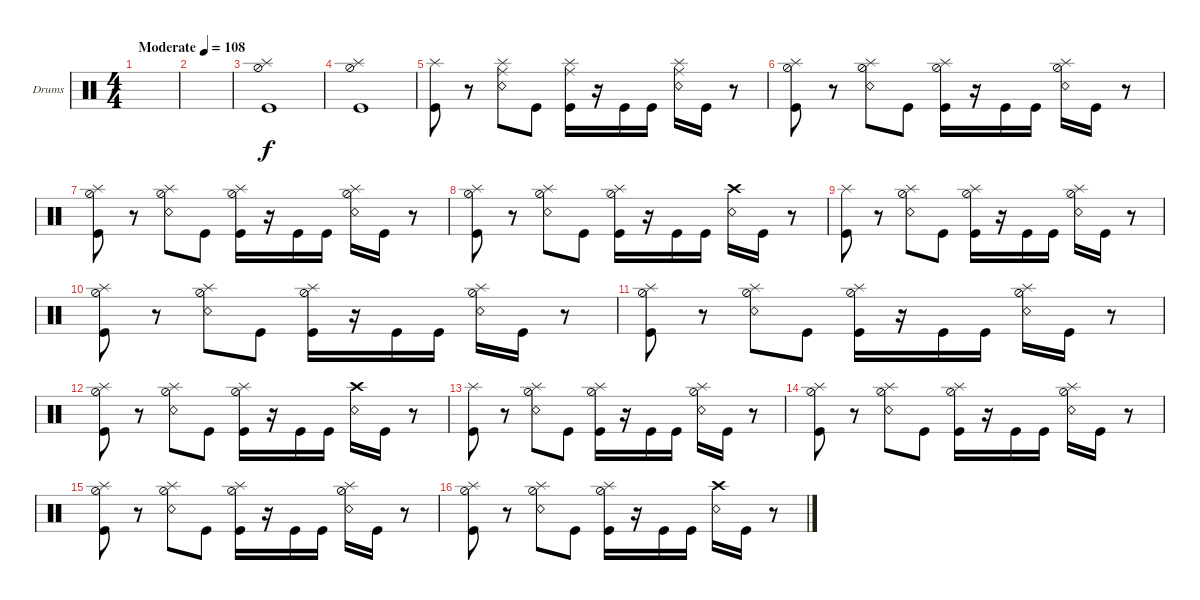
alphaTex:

\bracketExtendMode groupsimilarinstruments
\firstSystemTrackNameOrientation horizontal
\otherSystemsTrackNameOrientation horizontal
\track ("Drumkit" "Drums") {instrument percussion}
\staff {score}
\articulation defaults
\ts (4 4)
\beaming (8 2 2 2 2)
\tempo (108 "Moderate")
\clef neutral
\scale
0.474178
\ks c
|
\scale
0.262911 |
\scale
0.262911 ("Splash (hit)" "Kick (hit)" "Hi-Hat (half)").1 |
\scale
0.333333 ("Splash (hit)" "Kick (hit)" "Hi-Hat (half)").1 |
\scale
0.333333 ("Kick (hit)" "Splash (hit)").8 r.8 ("Snare (rim shot)" "Ride (middle)" "Splash (hit)").8 "Kick (hit)".8 ("Kick (hit)" "Ride (middle)" "Splash (hit)").16 r.16 "Kick (hit)".16 "Kick (hit)".16 ("Snare (rim shot)" "Ride (middle)" "Splash (hit)").16 "Kick (hit)".16 r.8 |
\scale
0.333333 ("Kick (hit)" "Hi-Hat (half)" "Splash (hit)").8 r.8 ("Snare (rim shot)" "Hi-Hat (half)" "Splash (hit)").8 "Kick (hit)".8 ("Kick (hit)" "Hi-Hat (half)" "Splash (hit)").16 r.16 "Kick (hit)".16 "Kick (hit)".16 ("Snare (rim shot)" "Hi-Hat (half)" "Splash (hit)").16 "Kick (hit)".16 r.8 |
\scale
0.333333 ("Kick (hit)" "Hi-Hat (half)" "Splash (hit)").8 r.8 ("Snare (rim shot)" "Hi-Hat (half)" "Splash (hit)").8 "Kick (hit)".8 ("Kick (hit)" "Hi-Hat (half)" "Splash (hit)").16 r.16 "Kick (hit)".16 "Kick (hit)".16 ("Snare (rim shot)" "Hi-Hat (half)" "Splash (hit)").16 "Kick (hit)".16 r.8 |
\scale
0.333333 ("Kick (hit)" "Hi-Hat (half)" "Splash (hit)").8 r.8 ("Snare (rim shot)" "Hi-Hat (half)" "Splash (hit)").8 "Kick (hit)".8 ("Kick (hit)" "Hi-Hat (half)" "Splash (hit)").16 r.16 "Kick (hit)".16 "Kick (hit)".16 ("Snare (rim shot)" "Crash high (hit)").16 "Kick (hit)".16 r.8 |
\scale
0.333333 ("Kick (hit)" "Splash (hit)").8 r.8 ("Snare (rim shot)" "Hi-Hat (half)" "Splash (hit)").8 "Kick (hit)".8 ("Kick (hit)" "Hi-Hat (half)" "Splash (hit)").16 r.16 "Kick (hit)".16 "Kick (hit)".16 ("Snare (rim shot)" "Hi-Hat (half)" "Splash (hit)").16 "Kick (hit)".16 r.8 |
\scale
0.333333 ("Kick (hit)" "Hi-Hat (half)" "Splash (hit)").8 r.8 ("Snare (rim shot)" "Hi-Hat (half)" "Splash (hit)").8 "Kick (hit)".8 ("Kick (hit)" "Hi-Hat (half)" "Splash (hit)").16 r.16 "Kick (hit)".16 "Kick (hit)".16 ("Snare (rim shot)" "Hi-Hat (half)" "Splash (hit)").16 "Kick (hit)".16 r.8 |
\scale
0.333333 ("Kick (hit)" "Hi-Hat (half)" "Splash (hit)").8 r.8 ("Snare (rim shot)" "Hi-Hat (half)" "Splash (hit)").8 "Kick (hit)".8 ("Kick (hit)" "Hi-Hat (half)" "Splash (hit)").16 r.16 "Kick (hit)".16 "Kick (hit)".16 ("Snare (rim shot)" "Hi-Hat (half)" "Splash (hit)").16 "Kick (hit)".16 r.8 |
\scale
0.333333 ("Kick (hit)" "Hi-Hat (half)" "Splash (hit)").8 r.8 ("Snare (rim shot)" "Hi-Hat (half)" "Splash (hit)").8 "Kick (hit)".8 ("Kick (hit)" "Hi-Hat (half)" "Splash (hit)").16 r.16 "Kick (hit)".16 "Kick (hit)".16 ("Snare (rim shot)" "Crash high (hit)").16 "Kick (hit)".16 r.8 |
\scale
0.333333 ("Kick (hit)" "Splash (hit)").8 r.8 ("Snare (rim shot)" "Hi-Hat (half)" "Splash (hit)").8 "Kick (hit)".8 ("Kick (hit)" "Hi-Hat (half)" "Splash (hit)").16 r.16 "Kick (hit)".16 "Kick (hit)".16 ("Snare (rim shot)" "Hi-Hat (half)" "Splash (hit)").16 "Kick (hit)".16 r.8 |
\scale
0.333333 ("Kick (hit)" "Hi-Hat (half)" "Splash (hit)").8 r.8 ("Snare (rim shot)" "Hi-Hat (half)" "Splash (hit)").8 "Kick (hit)".8 ("Kick (hit)" "Hi-Hat (half)" "Splash (hit)").16 r.16 "Kick (hit)".16 "Kick (hit)".16 ("Snare (rim shot)" "Hi-Hat (half)" "Splash (hit)").16 "Kick (hit)".16 r.8 |
\scale
0.333333 ("Kick (hit)" "Hi-Hat (half)" "Splash (hit)").8 r.8 ("Snare (rim shot)" "Hi-Hat (half)" "Splash (hit)").8 "Kick (hit)".8 ("Kick (hit)" "Hi-Hat (half)" "Splash (hit)").16 r.16 "Kick (hit)".16 "Kick (hit)".16 ("Snare (rim shot)" "Hi-Hat (half)" "Splash (hit)").16 "Kick (hit)".16 r.8 |
\scale
0.311111 ("Kick (hit)" "Hi-Hat (half)" "Splash (hit)").8 r.8 ("Snare (rim shot)" "Hi-Hat (half)" "Splash (hit)").8 "Kick (hit)".8 ("Kick (hit)" "Hi-Hat (half)" "Splash (hit)").16 r.16 "Kick (hit)".16 "Kick (hit)".16 ("Snare (rim shot)" "Crash high (hit)").16 "Kick (hit)".16 r.8
